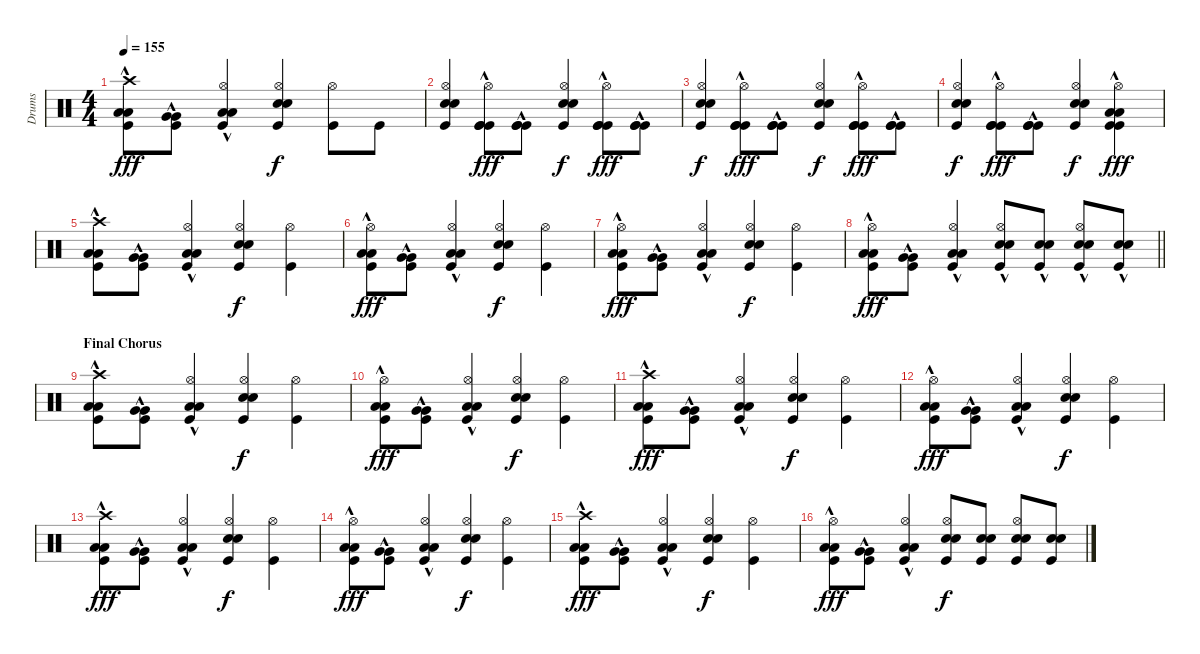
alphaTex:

\track ("Drums" "Drums") {instrument percussion}
\staff {score}
\articulation defaults
\ts (4 4)
\tempo 155
\clef neutral
\ks c
("Crash high (hit)" "Low Tom (hit)"{hac} "Low Tom (hit)"{hac} "Kick (hit)").8{dy fff} ("Very Low Tom (hit)"{hac} "Very Low Tom (hit)"{hac} "Kick (hit)").8 ("Hi-Hat (open)" "Low Floor Tom (hit)"{hac} "Low Floor Tom (hit)"{hac} "Kick (hit)").4 ("Hi-Hat (open)" "Snare (hit) 2" "Electric Snare (hit)" "Kick (hit)").4{dy f} ("Hi-Hat (open)" "Kick (hit)").8 "Kick (hit)".8 |
("Hi-Hat (open)" "Snare (hit) 2" "Electric Snare (hit)" "Kick (hit)").4 ("Hi-Hat (open)" "Kick (hit)"{hac} "Kick (hit)"{hac} "Kick (hit)"{hac}).8{dy fff} ("Kick (hit)"{hac} "Kick (hit)"{hac} "Kick (hit)"{hac}).8 ("Hi-Hat (open)" "Snare (hit) 2" "Electric Snare (hit)" "Kick (hit)").4{dy f} ("Hi-Hat (open)" "Kick (hit)"{hac} "Kick (hit)"{hac} "Kick (hit)"{hac}).8{dy fff} ("Kick (hit)"{hac} "Kick (hit)"{hac} "Kick (hit)"{hac}).8 |
("Hi-Hat (open)" "Snare (hit) 2" "Electric Snare (hit)" "Kick (hit)").4{dy f} ("Hi-Hat (open)" "Kick (hit)"{hac} "Kick (hit)"{hac} "Kick (hit)"{hac}).8{dy fff} ("Kick (hit)"{hac} "Kick (hit)"{hac} "Kick (hit)"{hac}).8 ("Hi-Hat (open)" "Snare (hit) 2" "Electric Snare (hit)" "Kick (hit)").4{dy f} ("Hi-Hat (open)" "Kick (hit)"{hac} "Kick (hit)"{hac} "Kick (hit)"{hac}).8{dy fff} ("Kick (hit)"{hac} "Kick (hit)"{hac} "Kick (hit)"{hac}).8 |
("Hi-Hat (open)" "Snare (hit) 2" "Electric Snare (hit)" "Kick (hit)").4{dy f} ("Hi-Hat (open)" "Kick (hit)"{hac} "Kick (hit)"{hac} "Kick (hit)"{hac}).8{dy fff} ("Kick (hit)"{hac} "Kick (hit)"{hac} "Kick (hit)"{hac}).8 ("Hi-Hat (open)" "Snare (hit) 2" "Electric Snare (hit)" "Kick (hit)").4{dy f} ("Hi-Hat (open)" "Low Tom (hit)"{hac} "Low Tom (hit)"{hac} "Kick (hit)"{hac} "Kick (hit)"{hac}).4{bu 120 dy fff} |
("Crash high (hit)" "Low Tom (hit)"{hac} "Low Tom (hit)"{hac} "Kick (hit)").8 ("Very Low Tom (hit)"{hac} "Very Low Tom (hit)"{hac} "Kick (hit)").8 ("Hi-Hat (open)" "Low Floor Tom (hit)"{hac} "Low Floor Tom (hit)"{hac} "Kick (hit)").4 ("Hi-Hat (open)" "Snare (hit) 2" "Electric Snare (hit)" "Kick (hit)").4{dy f} ("Hi-Hat (open)" "Kick (hit)").4 |
("Hi-Hat (open)" "Low Tom (hit)"{hac} "Low Tom (hit)"{hac} "Kick (hit)").8{dy fff} ("Very Low Tom (hit)"{hac} "Very Low Tom (hit)"{hac} "Kick (hit)").8 ("Hi-Hat (open)" "Low Floor Tom (hit)"{hac} "Low Floor Tom (hit)"{hac} "Kick (hit)").4 ("Hi-Hat (open)" "Snare (hit) 2" "Electric Snare (hit)" "Kick (hit)").4{dy f} ("Hi-Hat (open)" "Kick (hit)").4 |
("Hi-Hat (open)" "Low Tom (hit)"{hac} "Low Tom (hit)"{hac} "Kick (hit)").8{dy fff} ("Very Low Tom (hit)"{hac} "Very Low Tom (hit)"{hac} "Kick (hit)").8 ("Hi-Hat (open)" "Low Floor Tom (hit)"{hac} "Low Floor Tom (hit)"{hac} "Kick (hit)").4 ("Hi-Hat (open)" "Snare (hit) 2" "Electric Snare (hit)" "Kick (hit)").4{dy f} ("Hi-Hat (open)" "Kick (hit)").4 |
\barLineRight lightlight
("Hi-Hat (open)" "Low Tom (hit)"{hac} "Low Tom (hit)"{hac} "Kick (hit)").8{dy fff} ("Very Low Tom (hit)"{hac} "Very Low Tom (hit)"{hac} "Kick (hit)").8 ("Hi-Hat (open)" "Low Floor Tom (hit)"{hac} "Low Floor Tom (hit)"{hac} "Kick (hit)").4 ("Hi-Hat (open)" "Snare (hit) 2"{hac} "Electric Snare (hit)"{hac} "Kick (hit)"{hac}).8 ("Snare (hit) 2"{hac} "Electric Snare (hit)"{hac} "Kick (hit)"{hac}).8 ("Hi-Hat (open)" "Snare (hit) 2"{hac} "Electric Snare (hit)"{hac} "Kick (hit)"{hac}).8 ("Snare (hit) 2"{hac} "Electric Snare (hit)"{hac} "Kick (hit)"{hac}).8 |
\section ("" "Final Chorus")
("Crash high (hit)" "Low Tom (hit)"{hac} "Low Tom (hit)"{hac} "Kick (hit)").8 ("Very Low Tom (hit)"{hac} "Very Low Tom (hit)"{hac} "Kick (hit)").8 ("Hi-Hat (open)" "Low Floor Tom (hit)"{hac} "Low Floor Tom (hit)"{hac} "Kick (hit)").4 ("Hi-Hat (open)" "Snare (hit) 2" "Electric Snare (hit)" "Kick (hit)").4{dy f} ("Hi-Hat (open)" "Kick (hit)").4 |
("Hi-Hat (open)" "Low Tom (hit)"{hac} "Low Tom (hit)"{hac} "Kick (hit)").8{dy fff} ("Very Low Tom (hit)"{hac} "Very Low Tom (hit)"{hac} "Kick (hit)").8 ("Hi-Hat (open)" "Low Floor Tom (hit)"{hac} "Low Floor Tom (hit)"{hac} "Kick (hit)").4 ("Hi-Hat (open)" "Snare (hit) 2" "Electric Snare (hit)" "Kick (hit)").4{dy f} ("Hi-Hat (open)" "Kick (hit)").4 |
("Crash high (hit)" "Low Tom (hit)"{hac} "Low Tom (hit)"{hac} "Kick (hit)").8{dy fff} ("Very Low Tom (hit)"{hac} "Very Low Tom (hit)"{hac} "Kick (hit)").8 ("Hi-Hat (open)" "Low Floor Tom (hit)"{hac} "Low Floor Tom (hit)"{hac} "Kick (hit)").4 ("Hi-Hat (open)" "Snare (hit) 2" "Electric Snare (hit)" "Kick (hit)").4{dy f} ("Hi-Hat (open)" "Kick (hit)").4 |
("Hi-Hat (open)" "Low Tom (hit)"{hac} "Low Tom (hit)"{hac} "Kick (hit)").8{dy fff} ("Very Low Tom (hit)"{hac} "Very Low Tom (hit)"{hac} "Kick (hit)").8 ("Hi-Hat (open)" "Low Floor Tom (hit)"{hac} "Low Floor Tom (hit)"{hac} "Kick (hit)").4 ("Hi-Hat (open)" "Snare (hit) 2" "Electric Snare (hit)" "Kick (hit)").4{dy f} ("Hi-Hat (open)" "Kick (hit)").4 |
("Crash high (hit)" "Low Tom (hit)"{hac} "Low Tom (hit)"{hac} "Kick (hit)").8{dy fff} ("Very Low Tom (hit)"{hac} "Very Low Tom (hit)"{hac} "Kick (hit)").8 ("Hi-Hat (open)" "Low Floor Tom (hit)"{hac} "Low Floor Tom (hit)"{hac} "Kick (hit)").4 ("Hi-Hat (open)" "Snare (hit) 2" "Electric Snare (hit)" "Kick (hit)").4{dy f} ("Hi-Hat (open)" "Kick (hit)").4 |
("Hi-Hat (open)" "Low Tom (hit)"{hac} "Low Tom (hit)"{hac} "Kick (hit)").8{dy fff} ("Very Low Tom (hit)"{hac} "Very Low Tom (hit)"{hac} "Kick (hit)").8 ("Hi-Hat (open)" "Low Floor Tom (hit)"{hac} "Low Floor Tom (hit)"{hac} "Kick (hit)").4 ("Hi-Hat (open)" "Snare (hit) 2" "Electric Snare (hit)" "Kick (hit)").4{dy f} ("Hi-Hat (open)" "Kick (hit)").4 |
("Crash high (hit)" "Low Tom (hit)"{hac} "Low Tom (hit)"{hac} "Kick (hit)").8{dy fff} ("Very Low Tom (hit)"{hac} "Very Low Tom (hit)"{hac} "Kick (hit)").8 ("Hi-Hat (open)" "Low Floor Tom (hit)"{hac} "Low Floor Tom (hit)"{hac} "Kick (hit)").4 ("Hi-Hat (open)" "Snare (hit) 2" "Electric Snare (hit)" "Kick (hit)").4{dy f} ("Hi-Hat (open)" "Kick (hit)").4 |
("Hi-Hat (open)" "Low Tom (hit)"{hac} "Low Tom (hit)"{hac} "Kick (hit)").8{dy fff} ("Very Low Tom (hit)"{hac} "Very Low Tom (hit)"{hac} "Kick (hit)").8 ("Hi-Hat (open)" "Low Floor Tom (hit)"{hac} "Low Floor Tom (hit)"{hac} "Kick (hit)").4 ("Hi-Hat (open)" "Snare (hit) 2" "Electric Snare (hit)" "Kick (hit)").8{dy f} ("Snare (hit) 2" "Electric Snare (hit)" "Kick (hit)").8 ("Hi-Hat (open)" "Snare (hit) 2" "Electric Snare (hit)" "Kick (hit)").8 ("Snare (hit) 2" "Electric Snare (hit)" "Kick (hit)").8
